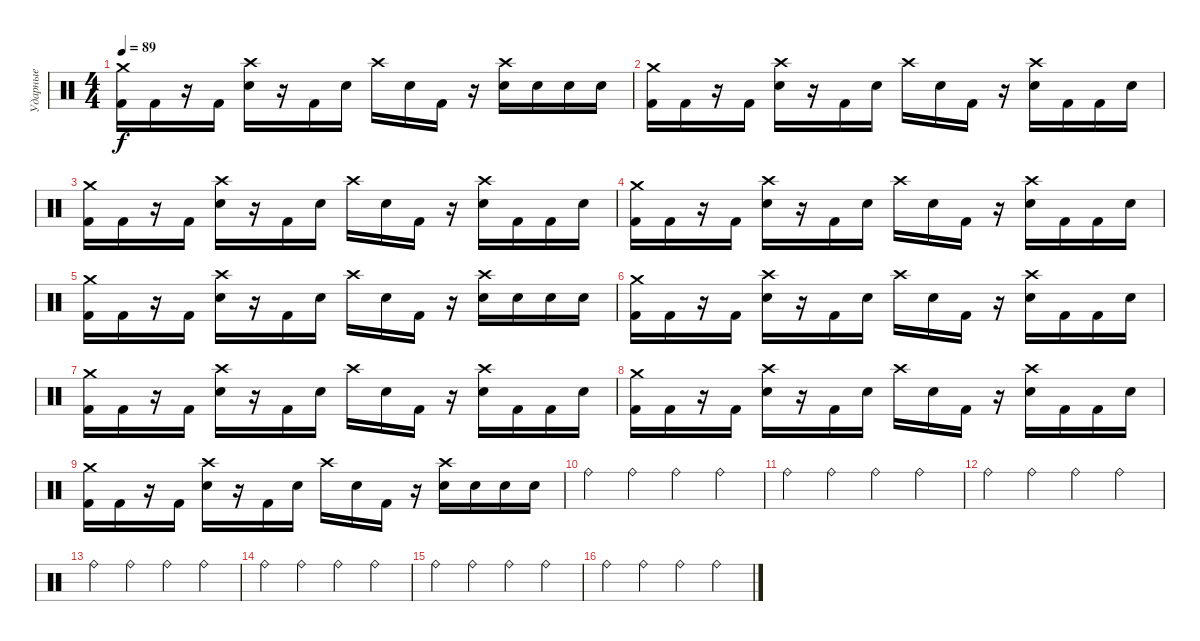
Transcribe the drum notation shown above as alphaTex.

\track ("Ударные" "Ударные") {instrument percussion}
\staff {score}
\articulation defaults
\ts (4 4)
\tempo 89
\clef neutral
\ks c
("Crash medium (hit)" "Kick (hit) 2").16{dy f} "Kick (hit) 2".16 r.16 "Kick (hit) 2".16 ("Crash high (hit)" "Electric Snare (hit)").16 r.16 "Kick (hit) 2".16 "Electric Snare (hit)".16 "Crash high (hit)".16 "Electric Snare (hit)".16 "Kick (hit) 2".16 r.16 ("Crash high (hit)" "Electric Snare (hit)").16 "Electric Snare (hit)".16 "Electric Snare (hit)".16 "Electric Snare (hit)".16 |
("Crash medium (hit)" "Kick (hit) 2").16 "Kick (hit) 2".16 r.16 "Kick (hit) 2".16 ("Crash high (hit)" "Electric Snare (hit)").16 r.16 "Kick (hit) 2".16 "Electric Snare (hit)".16 "Crash high (hit)".16 "Electric Snare (hit)".16 "Kick (hit) 2".16 r.16 ("Crash high (hit)" "Electric Snare (hit)").16 "Kick (hit) 2".16 "Kick (hit) 2".16 "Electric Snare (hit)".16 |
("Crash medium (hit)" "Kick (hit) 2").16 "Kick (hit) 2".16 r.16 "Kick (hit) 2".16 ("Crash high (hit)" "Electric Snare (hit)").16 r.16 "Kick (hit) 2".16 "Electric Snare (hit)".16 "Crash high (hit)".16 "Electric Snare (hit)".16 "Kick (hit) 2".16 r.16 ("Crash high (hit)" "Electric Snare (hit)").16 "Kick (hit) 2".16 "Kick (hit) 2".16 "Electric Snare (hit)".16 |
("Crash medium (hit)" "Kick (hit) 2").16 "Kick (hit) 2".16 r.16 "Kick (hit) 2".16 ("Crash high (hit)" "Electric Snare (hit)").16 r.16 "Kick (hit) 2".16 "Electric Snare (hit)".16 "Crash high (hit)".16 "Electric Snare (hit)".16 "Kick (hit) 2".16 r.16 ("Crash high (hit)" "Electric Snare (hit)").16 "Kick (hit) 2".16 "Kick (hit) 2".16 "Electric Snare (hit)".16 |
("Crash medium (hit)" "Kick (hit) 2").16 "Kick (hit) 2".16 r.16 "Kick (hit) 2".16 ("Crash high (hit)" "Electric Snare (hit)").16 r.16 "Kick (hit) 2".16 "Electric Snare (hit)".16 "Crash high (hit)".16 "Electric Snare (hit)".16 "Kick (hit) 2".16 r.16 ("Crash high (hit)" "Electric Snare (hit)").16 "Electric Snare (hit)".16 "Electric Snare (hit)".16 "Electric Snare (hit)".16 |
("Crash medium (hit)" "Kick (hit) 2").16 "Kick (hit) 2".16 r.16 "Kick (hit) 2".16 ("Crash high (hit)" "Electric Snare (hit)").16 r.16 "Kick (hit) 2".16 "Electric Snare (hit)".16 "Crash high (hit)".16 "Electric Snare (hit)".16 "Kick (hit) 2".16 r.16 ("Crash high (hit)" "Electric Snare (hit)").16 "Kick (hit) 2".16 "Kick (hit) 2".16 "Electric Snare (hit)".16 |
("Crash medium (hit)" "Kick (hit) 2").16 "Kick (hit) 2".16 r.16 "Kick (hit) 2".16 ("Crash high (hit)" "Electric Snare (hit)").16 r.16 "Kick (hit) 2".16 "Electric Snare (hit)".16 "Crash high (hit)".16 "Electric Snare (hit)".16 "Kick (hit) 2".16 r.16 ("Crash high (hit)" "Electric Snare (hit)").16 "Kick (hit) 2".16 "Kick (hit) 2".16 "Electric Snare (hit)".16 |
("Crash medium (hit)" "Kick (hit) 2").16 "Kick (hit) 2".16 r.16 "Kick (hit) 2".16 ("Crash high (hit)" "Electric Snare (hit)").16 r.16 "Kick (hit) 2".16 "Electric Snare (hit)".16 "Crash high (hit)".16 "Electric Snare (hit)".16 "Kick (hit) 2".16 r.16 ("Crash high (hit)" "Electric Snare (hit)").16 "Kick (hit) 2".16 "Kick (hit) 2".16 "Electric Snare (hit)".16 |
("Crash medium (hit)" "Kick (hit) 2").16 "Kick (hit) 2".16 r.16 "Kick (hit) 2".16 ("Crash high (hit)" "Electric Snare (hit)").16 r.16 "Kick (hit) 2".16 "Electric Snare (hit)".16 "Crash high (hit)".16 "Electric Snare (hit)".16 "Kick (hit) 2".16 r.16 ("Crash high (hit)" "Electric Snare (hit)").16 "Electric Snare (hit)".16 "Electric Snare (hit)".16 "Electric Snare (hit)".16 |
"Ride (bell)".4 "Ride (bell)".4 "Ride (bell)".4 "Ride (bell)".4 |
"Ride (bell)".4 "Ride (bell)".4 "Ride (bell)".4 "Ride (bell)".4 |
"Ride (bell)".4 "Ride (bell)".4 "Ride (bell)".4 "Ride (bell)".4 |
"Ride (bell)".4 "Ride (bell)".4 "Ride (bell)".4 "Ride (bell)".4 |
"Ride (bell)".4 "Ride (bell)".4 "Ride (bell)".4 "Ride (bell)".4 |
"Ride (bell)".4 "Ride (bell)".4 "Ride (bell)".4 "Ride (bell)".4 |
"Ride (bell)".4 "Ride (bell)".4 "Ride (bell)".4 "Ride (bell)".4
